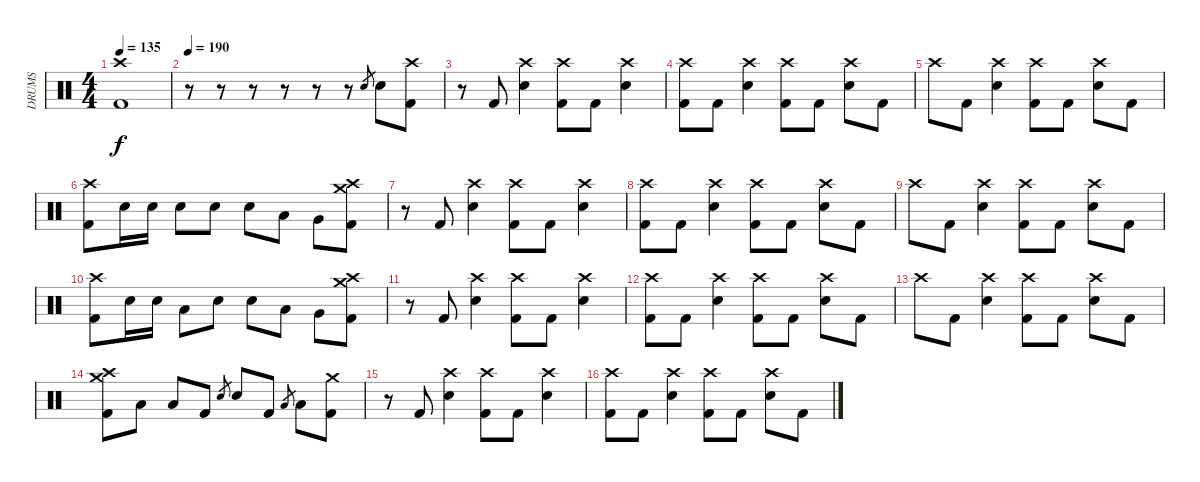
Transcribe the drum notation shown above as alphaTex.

\track ("DRUMS" "DRUMS") {instrument percussion}
\staff {score}
\articulation defaults
\ts (4 4)
\tempo 135
\clef neutral
\ks c
("Crash high (hit)" "Kick (hit) 2").1{dy f} |
\tempo 190
r.8 r.8 r.8 r.8 r.8 r.8 "Electric Snare (hit)".8{gr} "Electric Snare (hit)".8 ("Crash high (hit)" "Kick (hit) 2").8 |
r.8 "Kick (hit) 2".8 ("Crash high (hit)" "Electric Snare (hit)").4 ("Crash high (hit)" "Kick (hit) 2").8 "Kick (hit) 2".8 ("Crash high (hit)" "Electric Snare (hit)").4 |
("Crash high (hit)" "Kick (hit) 2").8 "Kick (hit) 2".8 ("Crash high (hit)" "Electric Snare (hit)").4 ("Crash high (hit)" "Kick (hit) 2").8 "Kick (hit) 2".8 ("Crash high (hit)" "Electric Snare (hit)").8 "Kick (hit) 2".8 |
"Crash high (hit)".8 "Kick (hit) 2".8 ("Crash high (hit)" "Electric Snare (hit)").4 ("Crash high (hit)" "Kick (hit) 2").8 "Kick (hit) 2".8 ("Crash high (hit)" "Electric Snare (hit)").8 "Kick (hit) 2".8 |
("Crash high (hit)" "Kick (hit) 2").8 "Electric Snare (hit)".16 "Electric Snare (hit)".16 "Electric Snare (hit)".8 "Electric Snare (hit)".8 "Electric Snare (hit)".8 "Low Tom (hit)".8 "Very Low Tom (hit)".8 ("Crash medium (hit)" "Crash high (hit)" "Kick (hit) 2").8 |
r.8 "Kick (hit) 2".8 ("Crash high (hit)" "Electric Snare (hit)").4 ("Crash high (hit)" "Kick (hit) 2").8 "Kick (hit) 2".8 ("Crash high (hit)" "Electric Snare (hit)").4 |
("Crash high (hit)" "Kick (hit) 2").8 "Kick (hit) 2".8 ("Crash high (hit)" "Electric Snare (hit)").4 ("Crash high (hit)" "Kick (hit) 2").8 "Kick (hit) 2".8 ("Crash high (hit)" "Electric Snare (hit)").8 "Kick (hit) 2".8 |
"Crash high (hit)".8 "Kick (hit) 2".8 ("Crash high (hit)" "Electric Snare (hit)").4 ("Crash high (hit)" "Kick (hit) 2").8 "Kick (hit) 2".8 ("Crash high (hit)" "Electric Snare (hit)").8 "Kick (hit) 2".8 |
("Crash high (hit)" "Kick (hit) 2").8 "Electric Snare (hit)".16 "Electric Snare (hit)".16 "Low Tom (hit)".8 "Electric Snare (hit)".8 "Electric Snare (hit)".8 "Low Tom (hit)".8 "Very Low Tom (hit)".8 ("Crash medium (hit)" "Crash high (hit)" "Kick (hit) 2").8 |
r.8 "Kick (hit) 2".8 ("Crash high (hit)" "Electric Snare (hit)").4 ("Crash high (hit)" "Kick (hit) 2").8 "Kick (hit) 2".8 ("Crash high (hit)" "Electric Snare (hit)").4 |
("Crash high (hit)" "Kick (hit) 2").8 "Kick (hit) 2".8 ("Crash high (hit)" "Electric Snare (hit)").4 ("Crash high (hit)" "Kick (hit) 2").8 "Kick (hit) 2".8 ("Crash high (hit)" "Electric Snare (hit)").8 "Kick (hit) 2".8 |
"Crash high (hit)".8 "Kick (hit) 2".8 ("Crash high (hit)" "Electric Snare (hit)").4 ("Crash high (hit)" "Kick (hit) 2").8 "Kick (hit) 2".8 ("Crash high (hit)" "Electric Snare (hit)").8 "Kick (hit) 2".8 |
("Crash medium (hit)" "Crash high (hit)" "Kick (hit) 2").8 "Low Tom (hit)".8 "Low Tom (hit)".8 "Kick (hit) 2".8 "Electric Snare (hit)".8{gr} "Electric Snare (hit)".8 "Kick (hit) 2".8 "Low Tom (hit)".8{gr} "Low Tom (hit)".8 ("Crash medium (hit)" "Kick (hit) 2").8 |
r.8 "Kick (hit) 2".8 ("Crash high (hit)" "Electric Snare (hit)").4 ("Crash high (hit)" "Kick (hit) 2").8 "Kick (hit) 2".8 ("Crash high (hit)" "Electric Snare (hit)").4 |
("Crash high (hit)" "Kick (hit) 2").8 "Kick (hit) 2".8 ("Crash high (hit)" "Electric Snare (hit)").4 ("Crash high (hit)" "Kick (hit) 2").8 "Kick (hit) 2".8 ("Crash high (hit)" "Electric Snare (hit)").8 "Kick (hit) 2".8
